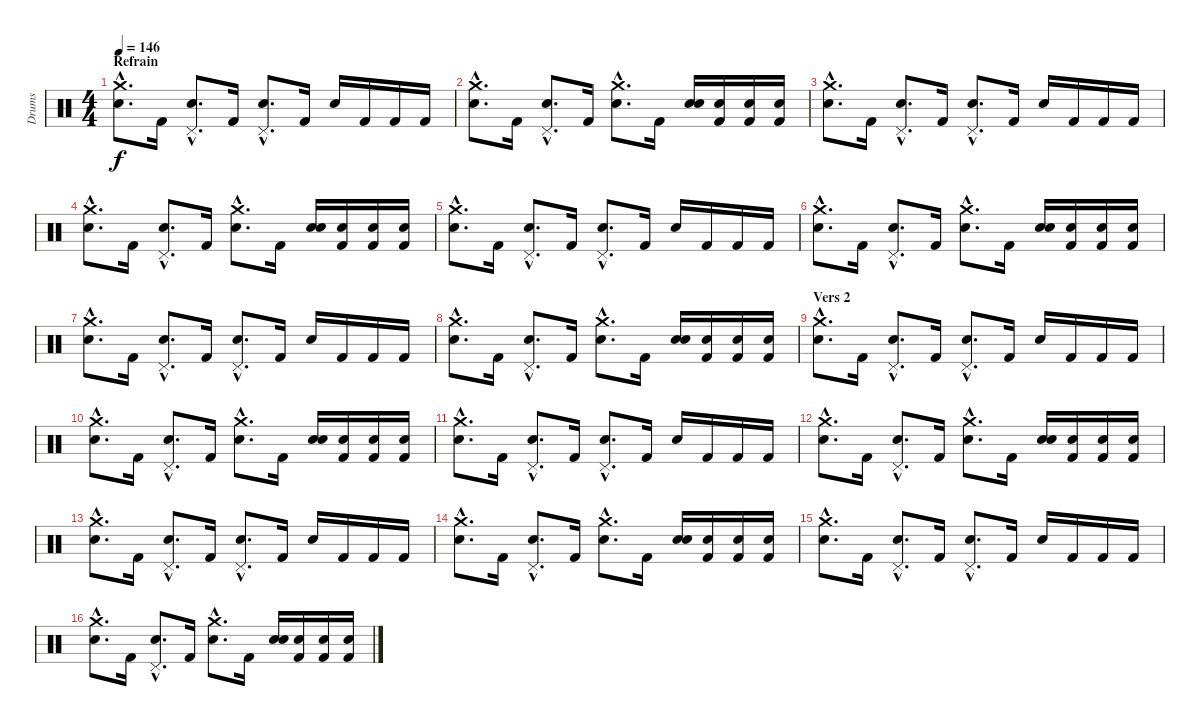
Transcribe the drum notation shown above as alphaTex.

\track ("Drums" "Drums") {instrument percussion}
\staff {score}
\articulation defaults
\ts (4 4)
\section ("" "Refrain")
\tempo 146
\clef neutral
\ks c
("Electric Snare (hit)"{hac} "Crash medium (hit)").8{d dy f} "Kick (hit) 2".16 ("Electric Snare (hit)"{hac} "Pedal Hi-Hat (hit)"{hac}).8{d} "Kick (hit) 2".16 ("Electric Snare (hit)"{hac} "Pedal Hi-Hat (hit)"{hac}).8{d} "Kick (hit) 2".16 "Electric Snare (hit)".16 "Kick (hit) 2".16 "Kick (hit) 2".16 "Kick (hit) 2".16 |
("Electric Snare (hit)"{hac} "Crash medium (hit)").8{d} "Kick (hit) 2".16 ("Electric Snare (hit)"{hac} "Pedal Hi-Hat (hit)"{hac}).8{d} "Kick (hit) 2".16 ("Electric Snare (hit)"{hac} "Crash medium (hit)"{hac}).8{d} "Kick (hit) 2".16 ("Electric Snare (hit)" "Snare (hit) 2").16 ("Kick (hit) 2" "Snare (hit) 2").16 ("Kick (hit) 2" "Snare (hit) 2").16 ("Kick (hit) 2" "Snare (hit) 2").16 |
("Electric Snare (hit)"{hac} "Crash medium (hit)").8{d} "Kick (hit) 2".16 ("Electric Snare (hit)"{hac} "Pedal Hi-Hat (hit)"{hac}).8{d} "Kick (hit) 2".16 ("Electric Snare (hit)"{hac} "Pedal Hi-Hat (hit)"{hac}).8{d} "Kick (hit) 2".16 "Electric Snare (hit)".16 "Kick (hit) 2".16 "Kick (hit) 2".16 "Kick (hit) 2".16 |
("Electric Snare (hit)"{hac} "Crash medium (hit)").8{d} "Kick (hit) 2".16 ("Electric Snare (hit)"{hac} "Pedal Hi-Hat (hit)"{hac}).8{d} "Kick (hit) 2".16 ("Electric Snare (hit)"{hac} "Crash medium (hit)"{hac}).8{d} "Kick (hit) 2".16 ("Electric Snare (hit)" "Snare (hit) 2").16 ("Kick (hit) 2" "Snare (hit) 2").16 ("Kick (hit) 2" "Snare (hit) 2").16 ("Kick (hit) 2" "Snare (hit) 2").16 |
("Electric Snare (hit)"{hac} "Crash medium (hit)").8{d} "Kick (hit) 2".16 ("Electric Snare (hit)"{hac} "Pedal Hi-Hat (hit)"{hac}).8{d} "Kick (hit) 2".16 ("Electric Snare (hit)"{hac} "Pedal Hi-Hat (hit)"{hac}).8{d} "Kick (hit) 2".16 "Electric Snare (hit)".16 "Kick (hit) 2".16 "Kick (hit) 2".16 "Kick (hit) 2".16 |
("Electric Snare (hit)"{hac} "Crash medium (hit)").8{d} "Kick (hit) 2".16 ("Electric Snare (hit)"{hac} "Pedal Hi-Hat (hit)"{hac}).8{d} "Kick (hit) 2".16 ("Electric Snare (hit)"{hac} "Crash medium (hit)"{hac}).8{d} "Kick (hit) 2".16 ("Electric Snare (hit)" "Snare (hit) 2").16 ("Kick (hit) 2" "Snare (hit) 2").16 ("Kick (hit) 2" "Snare (hit) 2").16 ("Kick (hit) 2" "Snare (hit) 2").16 |
("Electric Snare (hit)"{hac} "Crash medium (hit)").8{d} "Kick (hit) 2".16 ("Electric Snare (hit)"{hac} "Pedal Hi-Hat (hit)"{hac}).8{d} "Kick (hit) 2".16 ("Electric Snare (hit)"{hac} "Pedal Hi-Hat (hit)"{hac}).8{d} "Kick (hit) 2".16 "Electric Snare (hit)".16 "Kick (hit) 2".16 "Kick (hit) 2".16 "Kick (hit) 2".16 |
("Electric Snare (hit)"{hac} "Crash medium (hit)").8{d} "Kick (hit) 2".16 ("Electric Snare (hit)"{hac} "Pedal Hi-Hat (hit)"{hac}).8{d} "Kick (hit) 2".16 ("Electric Snare (hit)"{hac} "Crash medium (hit)"{hac}).8{d} "Kick (hit) 2".16 ("Electric Snare (hit)" "Snare (hit) 2").16 ("Kick (hit) 2" "Snare (hit) 2").16 ("Kick (hit) 2" "Snare (hit) 2").16 ("Kick (hit) 2" "Snare (hit) 2").16 |
\section ("" "Vers 2")
("Electric Snare (hit)"{hac} "Crash medium (hit)").8{d} "Kick (hit) 2".16 ("Electric Snare (hit)"{hac} "Pedal Hi-Hat (hit)"{hac}).8{d} "Kick (hit) 2".16 ("Electric Snare (hit)"{hac} "Pedal Hi-Hat (hit)"{hac}).8{d} "Kick (hit) 2".16 "Electric Snare (hit)".16 "Kick (hit) 2".16 "Kick (hit) 2".16 "Kick (hit) 2".16 |
("Electric Snare (hit)"{hac} "Crash medium (hit)").8{d} "Kick (hit) 2".16 ("Electric Snare (hit)"{hac} "Pedal Hi-Hat (hit)"{hac}).8{d} "Kick (hit) 2".16 ("Electric Snare (hit)"{hac} "Crash medium (hit)"{hac}).8{d} "Kick (hit) 2".16 ("Electric Snare (hit)" "Snare (hit) 2").16 ("Kick (hit) 2" "Snare (hit) 2").16 ("Kick (hit) 2" "Snare (hit) 2").16 ("Kick (hit) 2" "Snare (hit) 2").16 |
("Electric Snare (hit)"{hac} "Crash medium (hit)").8{d} "Kick (hit) 2".16 ("Electric Snare (hit)"{hac} "Pedal Hi-Hat (hit)"{hac}).8{d} "Kick (hit) 2".16 ("Electric Snare (hit)"{hac} "Pedal Hi-Hat (hit)"{hac}).8{d} "Kick (hit) 2".16 "Electric Snare (hit)".16 "Kick (hit) 2".16 "Kick (hit) 2".16 "Kick (hit) 2".16 |
("Electric Snare (hit)"{hac} "Crash medium (hit)").8{d} "Kick (hit) 2".16 ("Electric Snare (hit)"{hac} "Pedal Hi-Hat (hit)"{hac}).8{d} "Kick (hit) 2".16 ("Electric Snare (hit)"{hac} "Crash medium (hit)"{hac}).8{d} "Kick (hit) 2".16 ("Electric Snare (hit)" "Snare (hit) 2").16 ("Kick (hit) 2" "Snare (hit) 2").16 ("Kick (hit) 2" "Snare (hit) 2").16 ("Kick (hit) 2" "Snare (hit) 2").16 |
("Electric Snare (hit)"{hac} "Crash medium (hit)").8{d} "Kick (hit) 2".16 ("Electric Snare (hit)"{hac} "Pedal Hi-Hat (hit)"{hac}).8{d} "Kick (hit) 2".16 ("Electric Snare (hit)"{hac} "Pedal Hi-Hat (hit)"{hac}).8{d} "Kick (hit) 2".16 "Electric Snare (hit)".16 "Kick (hit) 2".16 "Kick (hit) 2".16 "Kick (hit) 2".16 |
("Electric Snare (hit)"{hac} "Crash medium (hit)").8{d} "Kick (hit) 2".16 ("Electric Snare (hit)"{hac} "Pedal Hi-Hat (hit)"{hac}).8{d} "Kick (hit) 2".16 ("Electric Snare (hit)"{hac} "Crash medium (hit)"{hac}).8{d} "Kick (hit) 2".16 ("Electric Snare (hit)" "Snare (hit) 2").16 ("Kick (hit) 2" "Snare (hit) 2").16 ("Kick (hit) 2" "Snare (hit) 2").16 ("Kick (hit) 2" "Snare (hit) 2").16 |
("Electric Snare (hit)"{hac} "Crash medium (hit)").8{d} "Kick (hit) 2".16 ("Electric Snare (hit)"{hac} "Pedal Hi-Hat (hit)"{hac}).8{d} "Kick (hit) 2".16 ("Electric Snare (hit)"{hac} "Pedal Hi-Hat (hit)"{hac}).8{d} "Kick (hit) 2".16 "Electric Snare (hit)".16 "Kick (hit) 2".16 "Kick (hit) 2".16 "Kick (hit) 2".16 |
("Electric Snare (hit)"{hac} "Crash medium (hit)").8{d} "Kick (hit) 2".16 ("Electric Snare (hit)"{hac} "Pedal Hi-Hat (hit)"{hac}).8{d} "Kick (hit) 2".16 ("Electric Snare (hit)"{hac} "Crash medium (hit)"{hac}).8{d} "Kick (hit) 2".16 ("Electric Snare (hit)" "Snare (hit) 2").16 ("Kick (hit) 2" "Snare (hit) 2").16 ("Kick (hit) 2" "Snare (hit) 2").16 ("Kick (hit) 2" "Snare (hit) 2").16
